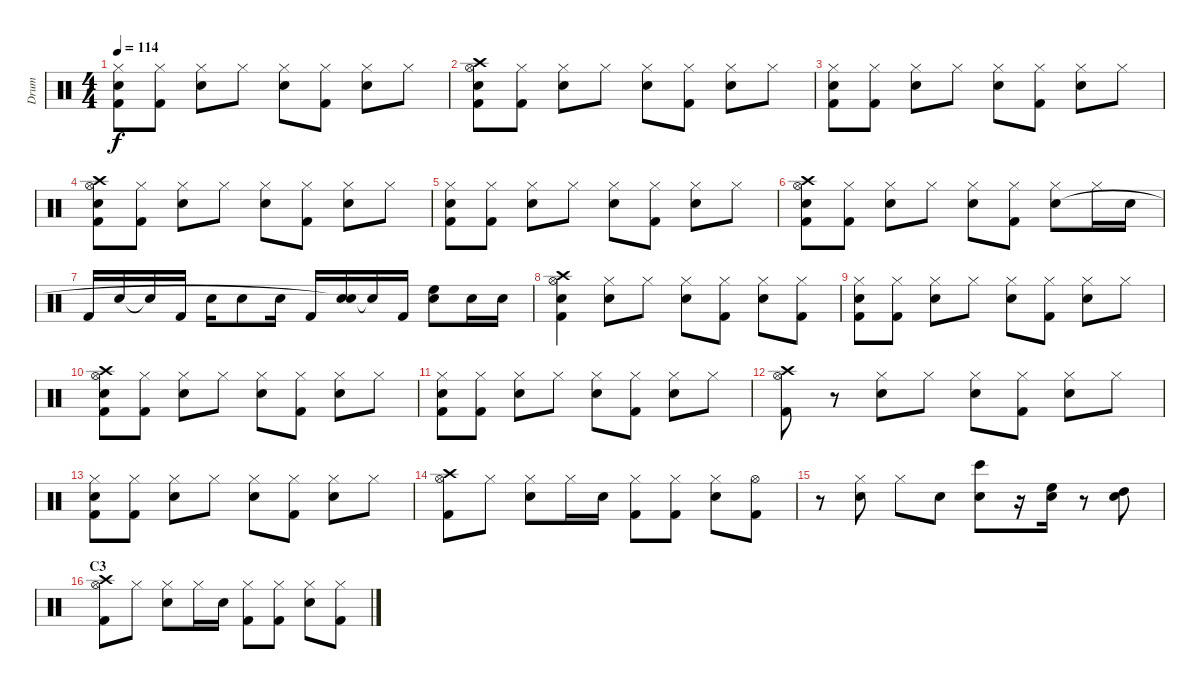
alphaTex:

\track ("Drum" "Drum") {instrument percussion}
\staff {score}
\articulation defaults
\ts (4 4)
\tempo 114
\clef neutral
\ks c
("Hi-Hat (closed)" "Snare (hit) 2" "Kick (hit) 2").8{dy f} ("Hi-Hat (closed)" "Kick (hit) 2").8 ("Hi-Hat (closed)" "Snare (hit) 2").8 "Hi-Hat (closed)".8 ("Hi-Hat (closed)" "Snare (hit) 2").8 ("Hi-Hat (closed)" "Kick (hit) 2").8 ("Hi-Hat (closed)" "Snare (hit) 2").8 "Hi-Hat (closed)".8 |
("Crash high (hit)" "Hi-Hat (open)" "Snare (hit) 2" "Kick (hit) 2").8 ("Hi-Hat (closed)" "Kick (hit) 2").8 ("Hi-Hat (closed)" "Snare (hit) 2").8 "Hi-Hat (closed)".8 ("Hi-Hat (closed)" "Snare (hit) 2").8 ("Hi-Hat (closed)" "Kick (hit) 2").8 ("Hi-Hat (closed)" "Snare (hit) 2").8 "Hi-Hat (closed)".8 |
("Hi-Hat (closed)" "Snare (hit) 2" "Kick (hit) 2").8 ("Hi-Hat (closed)" "Kick (hit) 2").8 ("Hi-Hat (closed)" "Snare (hit) 2").8 "Hi-Hat (closed)".8 ("Hi-Hat (closed)" "Snare (hit) 2").8 ("Hi-Hat (closed)" "Kick (hit) 2").8 ("Hi-Hat (closed)" "Snare (hit) 2").8 "Hi-Hat (closed)".8 |
("Crash high (hit)" "Hi-Hat (open)" "Snare (hit) 2" "Kick (hit) 2").8 ("Hi-Hat (closed)" "Kick (hit) 2").8 ("Hi-Hat (closed)" "Snare (hit) 2").8 "Hi-Hat (closed)".8 ("Hi-Hat (closed)" "Snare (hit) 2").8 ("Hi-Hat (closed)" "Kick (hit) 2").8 ("Hi-Hat (closed)" "Snare (hit) 2").8 "Hi-Hat (closed)".8 |
("Hi-Hat (closed)" "Snare (hit) 2" "Kick (hit) 2").8 ("Hi-Hat (closed)" "Kick (hit) 2").8 ("Hi-Hat (closed)" "Snare (hit) 2").8 "Hi-Hat (closed)".8 ("Hi-Hat (closed)" "Snare (hit) 2").8 ("Hi-Hat (closed)" "Kick (hit) 2").8 ("Hi-Hat (closed)" "Snare (hit) 2").8 "Hi-Hat (closed)".8 |
("Crash high (hit)" "Hi-Hat (open)" "Snare (hit) 2" "Kick (hit) 2").8 ("Hi-Hat (closed)" "Kick (hit) 2").8 ("Hi-Hat (closed)" "Snare (hit) 2").8 "Hi-Hat (closed)".8 ("Hi-Hat (closed)" "Snare (hit) 2").8 ("Hi-Hat (closed)" "Kick (hit) 2").8 ("Hi-Hat (closed)" "Snare (hit) 2").8 "Hi-Hat (closed)".16 "Snare (hit) 2".16 |
"Kick (hit) 2".16 "Snare (hit) 2".16 "Snare (hit)"{t}.16 "Kick (hit) 2".16 "Snare (hit) 2".16 "Snare (hit) 2".8 "Snare (hit) 2".16 "Kick (hit) 2".16 ("Snare (hit) 2" "Snare (hit)"{t}).16 "Snare (hit)"{t}.16 "Kick (hit) 2".16 ("High Floor Tom (hit)" "Snare (hit) 2").8 "Snare (hit) 2".16 "Snare (hit) 2".16 |
("Crash high (hit)" "Hi-Hat (open)" "Snare (hit) 2" "Kick (hit) 2").4 ("Hi-Hat (closed)" "Snare (hit) 2").8 "Hi-Hat (closed)".8 ("Hi-Hat (closed)" "Snare (hit) 2").8 ("Hi-Hat (closed)" "Kick (hit) 2").8 ("Hi-Hat (closed)" "Snare (hit) 2").8 ("Hi-Hat (closed)" "Kick (hit) 2").8 |
("Hi-Hat (closed)" "Snare (hit) 2" "Kick (hit) 2").8 ("Hi-Hat (closed)" "Kick (hit) 2").8 ("Hi-Hat (closed)" "Snare (hit) 2").8 "Hi-Hat (closed)".8 ("Hi-Hat (closed)" "Snare (hit) 2").8 ("Hi-Hat (closed)" "Kick (hit) 2").8 ("Hi-Hat (closed)" "Snare (hit) 2").8 "Hi-Hat (closed)".8 |
("Crash high (hit)" "Hi-Hat (open)" "Snare (hit) 2" "Kick (hit) 2").8 ("Hi-Hat (closed)" "Kick (hit) 2").8 ("Hi-Hat (closed)" "Snare (hit) 2").8 "Hi-Hat (closed)".8 ("Hi-Hat (closed)" "Snare (hit) 2").8 ("Hi-Hat (closed)" "Kick (hit) 2").8 ("Hi-Hat (closed)" "Snare (hit) 2").8 "Hi-Hat (closed)".8 |
("Hi-Hat (closed)" "Snare (hit) 2" "Kick (hit) 2").8 ("Hi-Hat (closed)" "Kick (hit) 2").8 ("Hi-Hat (closed)" "Snare (hit) 2").8 "Hi-Hat (closed)".8 ("Hi-Hat (closed)" "Snare (hit) 2").8 ("Hi-Hat (closed)" "Kick (hit) 2").8 ("Hi-Hat (closed)" "Snare (hit) 2").8 "Hi-Hat (closed)".8 |
("Crash high (hit)" "Hi-Hat (open)" "Kick (hit) 2").8 r.8 ("Hi-Hat (closed)" "Snare (hit) 2").8 "Hi-Hat (closed)".8 ("Hi-Hat (closed)" "Snare (hit) 2").8 ("Hi-Hat (closed)" "Kick (hit) 2").8 ("Hi-Hat (closed)" "Snare (hit) 2").8 "Hi-Hat (closed)".8 |
("Hi-Hat (closed)" "Snare (hit) 2" "Kick (hit) 2").8 ("Hi-Hat (closed)" "Kick (hit) 2").8 ("Hi-Hat (closed)" "Snare (hit) 2").8 "Hi-Hat (closed)".8 ("Hi-Hat (closed)" "Snare (hit) 2").8 ("Hi-Hat (closed)" "Kick (hit) 2").8 ("Hi-Hat (closed)" "Snare (hit) 2").8 "Hi-Hat (closed)".8 |
("Crash high (hit)" "Hi-Hat (open)" "Kick (hit) 2").8 "Hi-Hat (closed)".8 ("Hi-Hat (closed)" "Snare (hit) 2").8 "Hi-Hat (closed)".16 "Snare (hit) 2".16 ("Hi-Hat (closed)" "Kick (hit) 2").8 ("Hi-Hat (closed)" "Kick (hit) 2").8 ("Hi-Hat (closed)" "Snare (hit) 2").8 ("Hi-Hat (open)" "Kick (hit) 2").8 |
r.8 ("Hi-Hat (closed)" "Snare (hit) 2").8 "Hi-Hat (closed)".8 "Snare (hit) 2".8 ("Bongo High (hit)" "Snare (hit) 2").8 r.16 ("High Floor Tom (hit)" "Snare (hit) 2").16 r.8 ("High Tom (hit)" "Snare (hit) 2").8 |
\section ("" "C3")
("Crash high (hit)" "Hi-Hat (open)" "Kick (hit) 2").8 "Hi-Hat (closed)".8 ("Hi-Hat (closed)" "Snare (hit) 2").8 "Hi-Hat (closed)".16 "Snare (hit) 2".16 ("Hi-Hat (closed)" "Kick (hit) 2").8 ("Hi-Hat (closed)" "Kick (hit) 2").8 ("Hi-Hat (closed)" "Snare (hit) 2").8 ("Hi-Hat (closed)" "Kick (hit) 2").8
